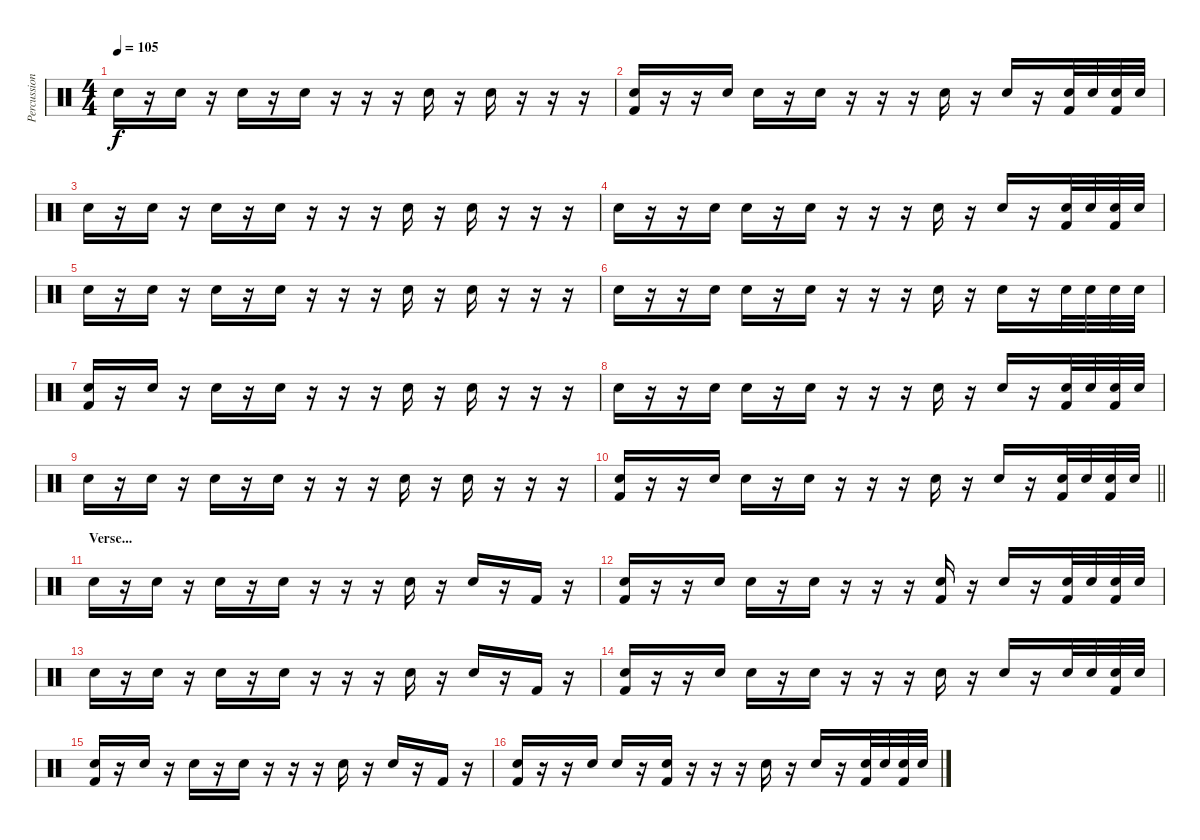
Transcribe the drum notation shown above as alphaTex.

\track ("Percussion" "Percussion") {instrument percussion}
\staff {score}
\articulation defaults
\ts (4 4)
\tempo 105
\clef neutral
\ks c "Snare (hit) 2".16{dy f}
r.16 "Snare (hit) 2".16 r.16 "Snare (hit) 2".16 r.16 "Snare (hit) 2".16 r.16 r.16 r.16 "Snare (hit) 2".16 r.16 "Snare (hit) 2".16 r.16 r.16 r.16 |
("Snare (hit) 2" "Kick (hit) 2").16 r.16 r.16 "Snare (hit) 2".16 "Snare (hit) 2".16 r.16 "Snare (hit) 2".16 r.16 r.16 r.16 "Snare (hit) 2".16 r.16 "Snare (hit) 2".16 r.16 ("Snare (hit) 2" "Kick (hit) 2").32 "Snare (hit) 2".32 ("Snare (hit) 2" "Kick (hit) 2").32 "Snare (hit) 2".32 |
"Snare (hit) 2".16 r.16 "Snare (hit) 2".16 r.16 "Snare (hit) 2".16 r.16 "Snare (hit) 2".16 r.16 r.16 r.16 "Snare (hit) 2".16 r.16 "Snare (hit) 2".16 r.16 r.16 r.16 |
"Snare (hit) 2".16 r.16 r.16 "Snare (hit) 2".16 "Snare (hit) 2".16 r.16 "Snare (hit) 2".16 r.16 r.16 r.16 "Snare (hit) 2".16 r.16 "Snare (hit) 2".16 r.16 ("Snare (hit) 2" "Kick (hit) 2").32 "Snare (hit) 2".32 ("Snare (hit) 2" "Kick (hit) 2").32 "Snare (hit) 2".32 |
"Snare (hit) 2".16 r.16 "Snare (hit) 2".16 r.16 "Snare (hit) 2".16 r.16 "Snare (hit) 2".16 r.16 r.16 r.16 "Snare (hit) 2".16 r.16 "Snare (hit) 2".16 r.16 r.16 r.16 |
"Snare (hit) 2".16 r.16 r.16 "Snare (hit) 2".16 "Snare (hit) 2".16 r.16 "Snare (hit) 2".16 r.16 r.16 r.16 "Snare (hit) 2".16 r.16 "Snare (hit) 2".16 r.16 "Snare (hit) 2".32 "Snare (hit) 2".32 "Snare (hit) 2".32 "Snare (hit) 2".32 |
("Snare (hit) 2" "Kick (hit) 2").16 r.16 "Snare (hit) 2".16 r.16 "Snare (hit) 2".16 r.16 "Snare (hit) 2".16 r.16 r.16 r.16 "Snare (hit) 2".16 r.16 "Snare (hit) 2".16 r.16 r.16 r.16 |
"Snare (hit) 2".16 r.16 r.16 "Snare (hit) 2".16 "Snare (hit) 2".16 r.16 "Snare (hit) 2".16 r.16 r.16 r.16 "Snare (hit) 2".16 r.16 "Snare (hit) 2".16 r.16 ("Snare (hit) 2" "Kick (hit) 2").32 "Snare (hit) 2".32 ("Snare (hit) 2" "Kick (hit) 2").32 "Snare (hit) 2".32 |
"Snare (hit) 2".16 r.16 "Snare (hit) 2".16 r.16 "Snare (hit) 2".16 r.16 "Snare (hit) 2".16 r.16 r.16 r.16 "Snare (hit) 2".16 r.16 "Snare (hit) 2".16 r.16 r.16 r.16 |
\barLineRight lightlight
("Snare (hit) 2" "Kick (hit) 2").16 r.16 r.16 "Snare (hit) 2".16 "Snare (hit) 2".16 r.16 "Snare (hit) 2".16 r.16 r.16 r.16 "Snare (hit) 2".16 r.16 "Snare (hit) 2".16 r.16 ("Snare (hit) 2" "Kick (hit) 2").32 "Snare (hit) 2".32 ("Snare (hit) 2" "Kick (hit) 2").32 "Snare (hit) 2".32 |
\section ("" "Verse...")
"Snare (hit) 2".16 r.16 "Snare (hit) 2".16 r.16 "Snare (hit) 2".16 r.16 "Snare (hit) 2".16 r.16 r.16 r.16 "Snare (hit) 2".16 r.16 "Snare (hit) 2".16 r.16 "Kick (hit) 2".16 r.16 |
("Snare (hit) 2" "Kick (hit) 2").16 r.16 r.16 "Snare (hit) 2".16 "Snare (hit) 2".16 r.16 "Snare (hit) 2".16 r.16 r.16 r.16 ("Snare (hit) 2" "Kick (hit) 2").16 r.16 "Snare (hit) 2".16 r.16 ("Snare (hit) 2" "Kick (hit) 2").32 "Snare (hit) 2".32 ("Snare (hit) 2" "Kick (hit) 2").32 "Snare (hit) 2".32 |
"Snare (hit) 2".16 r.16 "Snare (hit) 2".16 r.16 "Snare (hit) 2".16 r.16 "Snare (hit) 2".16 r.16 r.16 r.16 "Snare (hit) 2".16 r.16 "Snare (hit) 2".16 r.16 "Kick (hit) 2".16 r.16 |
("Snare (hit) 2" "Kick (hit) 2").16 r.16 r.16 "Snare (hit) 2".16 "Snare (hit) 2".16 r.16 "Snare (hit) 2".16 r.16 r.16 r.16 "Snare (hit) 2".16 r.16 "Snare (hit) 2".16 r.16 "Snare (hit) 2".32 "Snare (hit) 2".32 ("Snare (hit) 2" "Kick (hit) 2").32 "Snare (hit) 2".32 |
("Snare (hit) 2" "Kick (hit) 2").16 r.16 "Snare (hit) 2".16 r.16 "Snare (hit) 2".16 r.16 "Snare (hit) 2".16 r.16 r.16 r.16 "Snare (hit) 2".16 r.16 "Snare (hit) 2".16 r.16 "Kick (hit) 2".16 r.16 |
("Snare (hit) 2" "Kick (hit) 2").16 r.16 r.16 "Snare (hit) 2".16 "Snare (hit) 2".16 r.16 ("Snare (hit) 2" "Kick (hit) 2").16 r.16 r.16 r.16 "Snare (hit) 2".16 r.16 "Snare (hit) 2".16 r.16 ("Snare (hit) 2" "Kick (hit) 2").32 "Snare (hit) 2".32 ("Snare (hit) 2" "Kick (hit) 2").32 "Snare (hit) 2".32
